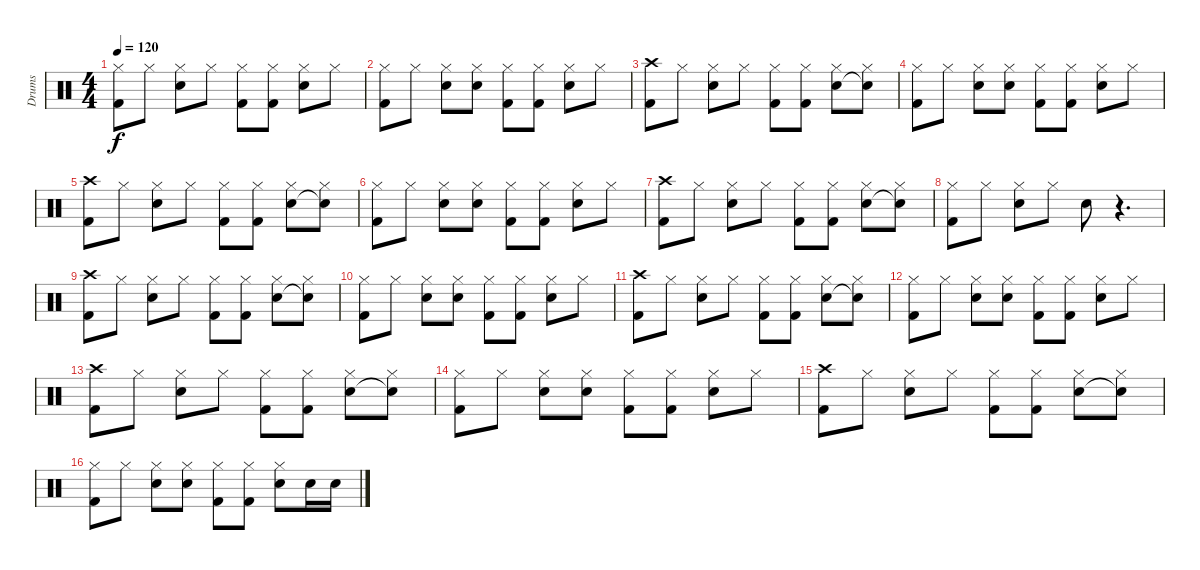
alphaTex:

\track ("Drums" "Drums") {instrument percussion}
\staff {score}
\articulation defaults
\ts (4 4)
\tempo 120
\clef neutral
\ks c
("Hi-Hat (closed)" "Kick (hit) 2").8{dy f} "Hi-Hat (closed)".8 ("Hi-Hat (closed)" "Snare (hit) 2").8 "Hi-Hat (closed)".8 ("Hi-Hat (closed)" "Kick (hit) 2").8 ("Hi-Hat (closed)" "Kick (hit) 2").8 ("Hi-Hat (closed)" "Snare (hit) 2").8 "Hi-Hat (closed)".8 |
("Hi-Hat (closed)" "Kick (hit) 2").8 "Hi-Hat (closed)".8 ("Hi-Hat (closed)" "Snare (hit) 2").8 ("Hi-Hat (closed)" "Snare (hit) 2").8 ("Hi-Hat (closed)" "Kick (hit) 2").8 ("Hi-Hat (closed)" "Kick (hit) 2").8 ("Hi-Hat (closed)" "Snare (hit) 2").8 "Hi-Hat (closed)".8 |
("Kick (hit) 2" "Crash high (hit)").8 "Hi-Hat (closed)".8 ("Hi-Hat (closed)" "Snare (hit) 2").8 "Hi-Hat (closed)".8 ("Hi-Hat (closed)" "Kick (hit) 2").8 ("Hi-Hat (closed)" "Kick (hit) 2").8 ("Hi-Hat (closed)" "Snare (hit) 2").8 ("Hi-Hat (closed)" "Snare (hit)"{t}).8 |
("Hi-Hat (closed)" "Kick (hit) 2").8 "Hi-Hat (closed)".8 ("Hi-Hat (closed)" "Snare (hit) 2").8 ("Hi-Hat (closed)" "Snare (hit) 2").8 ("Hi-Hat (closed)" "Kick (hit) 2").8 ("Hi-Hat (closed)" "Kick (hit) 2").8 ("Hi-Hat (closed)" "Snare (hit) 2").8 "Hi-Hat (closed)".8 |
("Kick (hit) 2" "Crash high (hit)").8 "Hi-Hat (closed)".8 ("Hi-Hat (closed)" "Snare (hit) 2").8 "Hi-Hat (closed)".8 ("Hi-Hat (closed)" "Kick (hit) 2").8 ("Hi-Hat (closed)" "Kick (hit) 2").8 ("Hi-Hat (closed)" "Snare (hit) 2").8 ("Hi-Hat (closed)" "Snare (hit)"{t}).8 |
("Hi-Hat (closed)" "Kick (hit) 2").8 "Hi-Hat (closed)".8 ("Hi-Hat (closed)" "Snare (hit) 2").8 ("Hi-Hat (closed)" "Snare (hit) 2").8 ("Hi-Hat (closed)" "Kick (hit) 2").8 ("Hi-Hat (closed)" "Kick (hit) 2").8 ("Hi-Hat (closed)" "Snare (hit) 2").8 "Hi-Hat (closed)".8 |
("Kick (hit) 2" "Crash high (hit)").8 "Hi-Hat (closed)".8 ("Hi-Hat (closed)" "Snare (hit) 2").8 "Hi-Hat (closed)".8 ("Hi-Hat (closed)" "Kick (hit) 2").8 ("Hi-Hat (closed)" "Kick (hit) 2").8 ("Hi-Hat (closed)" "Snare (hit) 2").8 ("Hi-Hat (closed)" "Snare (hit)"{t}).8 |
("Hi-Hat (closed)" "Kick (hit) 2").8 "Hi-Hat (closed)".8 ("Hi-Hat (closed)" "Snare (hit) 2").8 "Hi-Hat (closed)".8 "Snare (hit) 2".8 r.4{d} |
("Kick (hit) 2" "Crash high (hit)").8 "Hi-Hat (closed)".8 ("Hi-Hat (closed)" "Snare (hit) 2").8 "Hi-Hat (closed)".8 ("Hi-Hat (closed)" "Kick (hit) 2").8 ("Hi-Hat (closed)" "Kick (hit) 2").8 ("Hi-Hat (closed)" "Snare (hit) 2").8 ("Hi-Hat (closed)" "Snare (hit)"{t}).8 |
("Hi-Hat (closed)" "Kick (hit) 2").8 "Hi-Hat (closed)".8 ("Hi-Hat (closed)" "Snare (hit) 2").8 ("Hi-Hat (closed)" "Snare (hit) 2").8 ("Hi-Hat (closed)" "Kick (hit) 2").8 ("Hi-Hat (closed)" "Kick (hit) 2").8 ("Hi-Hat (closed)" "Snare (hit) 2").8 "Hi-Hat (closed)".8 |
("Kick (hit) 2" "Crash high (hit)").8 "Hi-Hat (closed)".8 ("Hi-Hat (closed)" "Snare (hit) 2").8 "Hi-Hat (closed)".8 ("Hi-Hat (closed)" "Kick (hit) 2").8 ("Hi-Hat (closed)" "Kick (hit) 2").8 ("Hi-Hat (closed)" "Snare (hit) 2").8 ("Hi-Hat (closed)" "Snare (hit)"{t}).8 |
("Hi-Hat (closed)" "Kick (hit) 2").8 "Hi-Hat (closed)".8 ("Hi-Hat (closed)" "Snare (hit) 2").8 ("Hi-Hat (closed)" "Snare (hit) 2").8 ("Hi-Hat (closed)" "Kick (hit) 2").8 ("Hi-Hat (closed)" "Kick (hit) 2").8 ("Hi-Hat (closed)" "Snare (hit) 2").8 "Hi-Hat (closed)".8 |
("Kick (hit) 2" "Crash high (hit)").8 "Hi-Hat (closed)".8 ("Hi-Hat (closed)" "Snare (hit) 2").8 "Hi-Hat (closed)".8 ("Hi-Hat (closed)" "Kick (hit) 2").8 ("Hi-Hat (closed)" "Kick (hit) 2").8 ("Hi-Hat (closed)" "Snare (hit) 2").8 ("Hi-Hat (closed)" "Snare (hit)"{t}).8 |
("Hi-Hat (closed)" "Kick (hit) 2").8 "Hi-Hat (closed)".8 ("Hi-Hat (closed)" "Snare (hit) 2").8 ("Hi-Hat (closed)" "Snare (hit) 2").8 ("Hi-Hat (closed)" "Kick (hit) 2").8 ("Hi-Hat (closed)" "Kick (hit) 2").8 ("Hi-Hat (closed)" "Snare (hit) 2").8 "Hi-Hat (closed)".8 |
("Kick (hit) 2" "Crash high (hit)").8 "Hi-Hat (closed)".8 ("Hi-Hat (closed)" "Snare (hit) 2").8 "Hi-Hat (closed)".8 ("Hi-Hat (closed)" "Kick (hit) 2").8 ("Hi-Hat (closed)" "Kick (hit) 2").8 ("Hi-Hat (closed)" "Snare (hit) 2").8 ("Hi-Hat (closed)" "Snare (hit)"{t}).8 |
("Hi-Hat (closed)" "Kick (hit) 2").8 "Hi-Hat (closed)".8 ("Hi-Hat (closed)" "Snare (hit) 2").8 ("Hi-Hat (closed)" "Snare (hit) 2").8 ("Hi-Hat (closed)" "Kick (hit) 2").8 ("Hi-Hat (closed)" "Kick (hit) 2").8 ("Hi-Hat (closed)" "Snare (hit) 2").8 "Snare (hit) 2".16 "Snare (hit) 2".16
